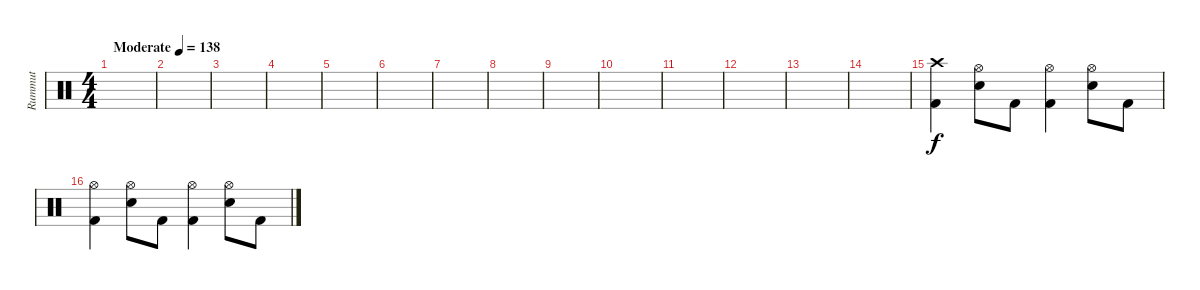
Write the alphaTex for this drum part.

\track ("Rummut" "Rummut") {instrument percussion}
\staff {score}
\articulation defaults
\ts (4 4)
\tempo (138 "Moderate")
\clef neutral
\ks c
|
|
|
|
|
|
|
|
|
|
|
|
|
|
("Crash high (hit)" "Kick (hit) 2").4 ("Hi-Hat (open)" "Snare (hit) 2").8 "Kick (hit) 2".8 ("Hi-Hat (open)" "Kick (hit) 2").4 ("Hi-Hat (open)" "Snare (hit) 2").8 "Kick (hit) 2".8 |
("Hi-Hat (open)" "Kick (hit) 2").4 ("Hi-Hat (open)" "Snare (hit) 2").8 "Kick (hit) 2".8 ("Hi-Hat (open)" "Kick (hit) 2").4 ("Hi-Hat (open)" "Snare (hit) 2").8 "Kick (hit) 2".8
